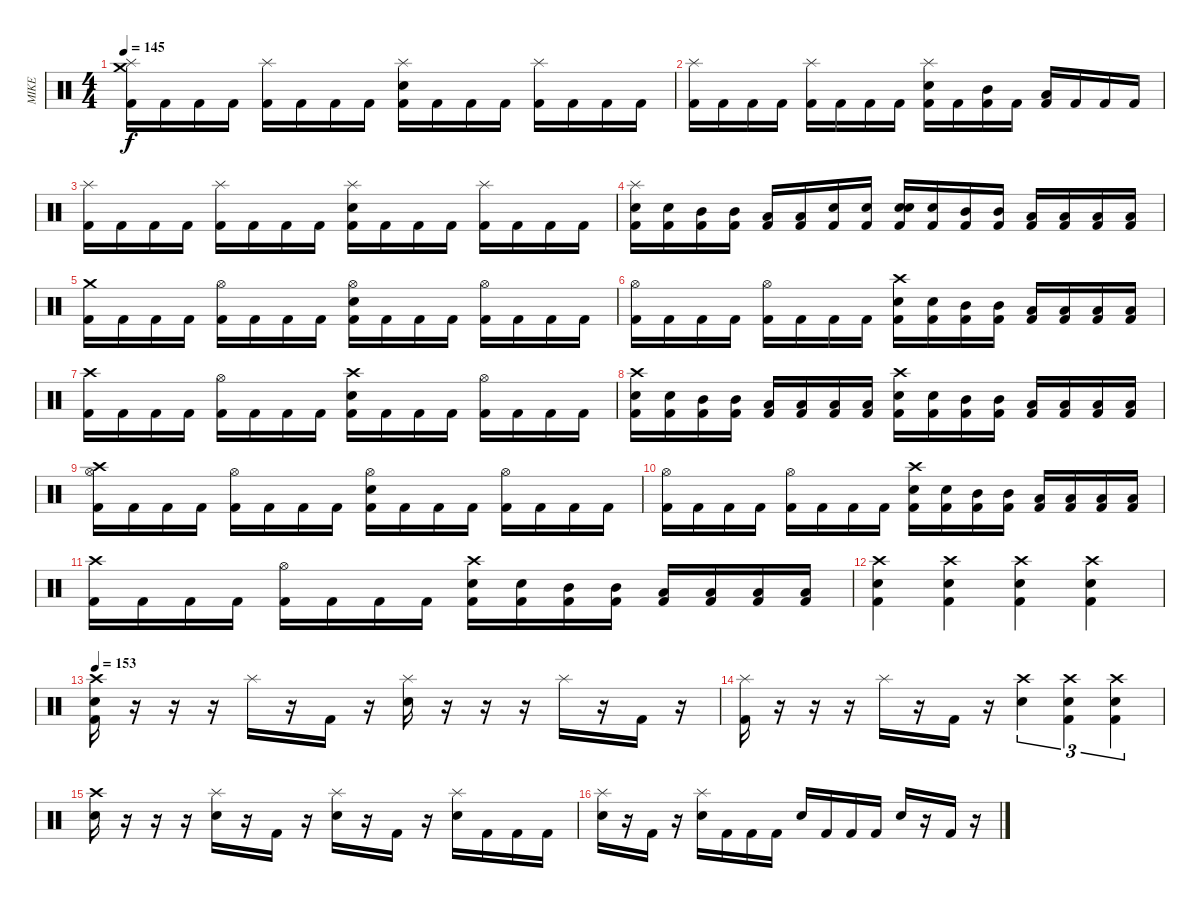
\track ("MIKE" "MIKE") {instrument percussion}
\staff {score}
\articulation defaults
\ts (4 4)
\tempo 145
\clef neutral
\ks c
("Crash medium (hit)" "Splash (hit)" "Kick (hit) 2").16{dy f} "Kick (hit) 2".16 "Kick (hit) 2".16 "Kick (hit) 2".16 ("Splash (hit)" "Kick (hit) 2").16 "Kick (hit) 2".16 "Kick (hit) 2".16 "Kick (hit) 2".16 ("Splash (hit)" "Electric Snare (hit)" "Kick (hit) 2").16 "Kick (hit) 2".16 "Kick (hit) 2".16 "Kick (hit) 2".16 ("Splash (hit)" "Kick (hit) 2").16 "Kick (hit) 2".16 "Kick (hit) 2".16 "Kick (hit) 2".16 |
("Splash (hit)" "Kick (hit) 2").16 "Kick (hit) 2".16 "Kick (hit) 2".16 "Kick (hit) 2".16 ("Splash (hit)" "Kick (hit) 2").16 "Kick (hit) 2".16 "Kick (hit) 2".16 "Kick (hit) 2".16 ("Splash (hit)" "Electric Snare (hit)" "Kick (hit) 2").16 "Kick (hit) 2".16 ("Mid Tom (hit)" "Kick (hit) 2").16 "Kick (hit) 2".16 ("Low Tom (hit)" "Kick (hit) 2").16 "Kick (hit) 2".16 "Kick (hit) 2".16 "Kick (hit) 2".16 |
("Splash (hit)" "Kick (hit) 2").16 "Kick (hit) 2".16 "Kick (hit) 2".16 "Kick (hit) 2".16 ("Splash (hit)" "Kick (hit) 2").16 "Kick (hit) 2".16 "Kick (hit) 2".16 "Kick (hit) 2".16 ("Splash (hit)" "Electric Snare (hit)" "Kick (hit) 2").16 "Kick (hit) 2".16 "Kick (hit) 2".16 "Kick (hit) 2".16 ("Splash (hit)" "Kick (hit) 2").16 "Kick (hit) 2".16 "Kick (hit) 2".16 "Kick (hit) 2".16 |
("Splash (hit)" "Electric Snare (hit)" "Kick (hit) 2").16 ("Electric Snare (hit)" "Kick (hit) 2").16 ("Mid Tom (hit)" "Kick (hit) 2").16 ("Mid Tom (hit)" "Kick (hit) 2").16 ("Low Tom (hit)" "Kick (hit) 2").16 ("Low Tom (hit)" "Kick (hit) 2").16 ("Electric Snare (hit)" "Kick (hit) 2").16 ("Electric Snare (hit)" "Kick (hit) 2").16 ("Electric Snare (hit)" "Electric Snare (hit)" "Kick (hit) 2").16 ("Electric Snare (hit)" "Kick (hit) 2").16 ("Mid Tom (hit)" "Kick (hit) 2").16 ("Mid Tom (hit)" "Kick (hit) 2").16 ("Low Tom (hit)" "Kick (hit) 2").16 ("Low Tom (hit)" "Kick (hit) 2").16 ("Low Floor Tom (hit)" "Kick (hit) 2").16 ("Low Floor Tom (hit)" "Kick (hit) 2").16 |
("Crash medium (hit)" "Kick (hit) 2").16 "Kick (hit) 2".16 "Kick (hit) 2".16 "Kick (hit) 2".16 ("Hi-Hat (open)" "Kick (hit) 2").16 "Kick (hit) 2".16 "Kick (hit) 2".16 "Kick (hit) 2".16 ("Hi-Hat (open)" "Electric Snare (hit)" "Kick (hit) 2").16 "Kick (hit) 2".16 "Kick (hit) 2".16 "Kick (hit) 2".16 ("Hi-Hat (open)" "Kick (hit) 2").16 "Kick (hit) 2".16 "Kick (hit) 2".16 "Kick (hit) 2".16 |
("Hi-Hat (open)" "Kick (hit) 2").16 "Kick (hit) 2".16 "Kick (hit) 2".16 "Kick (hit) 2".16 ("Hi-Hat (open)" "Kick (hit) 2").16 "Kick (hit) 2".16 "Kick (hit) 2".16 "Kick (hit) 2".16 ("Crash high (hit)" "Electric Snare (hit)" "Kick (hit) 2").16 ("Electric Snare (hit)" "Kick (hit) 2").16 ("Mid Tom (hit)" "Kick (hit) 2").16 ("Mid Tom (hit)" "Kick (hit) 2").16 ("Low Tom (hit)" "Kick (hit) 2").16 ("Low Tom (hit)" "Kick (hit) 2").16 ("Low Floor Tom (hit)" "Kick (hit) 2").16 ("Low Floor Tom (hit)" "Kick (hit) 2").16 |
("Crash high (hit)" "Kick (hit) 2").16 "Kick (hit) 2".16 "Kick (hit) 2".16 "Kick (hit) 2".16 ("Hi-Hat (open)" "Kick (hit) 2").16 "Kick (hit) 2".16 "Kick (hit) 2".16 "Kick (hit) 2".16 ("Crash high (hit)" "Electric Snare (hit)" "Kick (hit) 2").16 "Kick (hit) 2".16 "Kick (hit) 2".16 "Kick (hit) 2".16 ("Hi-Hat (open)" "Kick (hit) 2").16 "Kick (hit) 2".16 "Kick (hit) 2".16 "Kick (hit) 2".16 |
("Crash high (hit)" "Electric Snare (hit)" "Kick (hit) 2").16 ("Electric Snare (hit)" "Kick (hit) 2").16 ("Mid Tom (hit)" "Kick (hit) 2").16 ("Mid Tom (hit)" "Kick (hit) 2").16 ("Low Tom (hit)" "Kick (hit) 2").16 ("Low Tom (hit)" "Kick (hit) 2").16 ("Low Floor Tom (hit)" "Kick (hit) 2").16 ("Low Floor Tom (hit)" "Kick (hit) 2").16 ("Crash high (hit)" "Electric Snare (hit)" "Kick (hit) 2").16 ("Electric Snare (hit)" "Kick (hit) 2").16 ("Mid Tom (hit)" "Kick (hit) 2").16 ("Mid Tom (hit)" "Kick (hit) 2").16 ("Low Tom (hit)" "Kick (hit) 2").16 ("Low Tom (hit)" "Kick (hit) 2").16 ("Low Floor Tom (hit)" "Kick (hit) 2").16 ("Low Floor Tom (hit)" "Kick (hit) 2").16 |
("Crash high (hit)" "Hi-Hat (open)" "Kick (hit) 2").16 "Kick (hit) 2".16 "Kick (hit) 2".16 "Kick (hit) 2".16 ("Hi-Hat (open)" "Kick (hit) 2").16 "Kick (hit) 2".16 "Kick (hit) 2".16 "Kick (hit) 2".16 ("Hi-Hat (open)" "Electric Snare (hit)" "Kick (hit) 2").16 "Kick (hit) 2".16 "Kick (hit) 2".16 "Kick (hit) 2".16 ("Hi-Hat (open)" "Kick (hit) 2").16 "Kick (hit) 2".16 "Kick (hit) 2".16 "Kick (hit) 2".16 |
("Hi-Hat (open)" "Kick (hit) 2").16 "Kick (hit) 2".16 "Kick (hit) 2".16 "Kick (hit) 2".16 ("Hi-Hat (open)" "Kick (hit) 2").16 "Kick (hit) 2".16 "Kick (hit) 2".16 "Kick (hit) 2".16 ("Crash high (hit)" "Electric Snare (hit)" "Kick (hit) 2").16 ("Electric Snare (hit)" "Kick (hit) 2").16 ("Mid Tom (hit)" "Kick (hit) 2").16 ("Mid Tom (hit)" "Kick (hit) 2").16 ("Low Tom (hit)" "Kick (hit) 2").16 ("Low Tom (hit)" "Kick (hit) 2").16 ("Low Floor Tom (hit)" "Kick (hit) 2").16 ("Low Floor Tom (hit)" "Kick (hit) 2").16 |
("Crash high (hit)" "Kick (hit) 2").16 "Kick (hit) 2".16 "Kick (hit) 2".16 "Kick (hit) 2".16 ("Hi-Hat (open)" "Kick (hit) 2").16 "Kick (hit) 2".16 "Kick (hit) 2".16 "Kick (hit) 2".16 ("Crash high (hit)" "Electric Snare (hit)" "Kick (hit) 2").16 ("Electric Snare (hit)" "Kick (hit) 2").16 ("Mid Tom (hit)" "Kick (hit) 2").16 ("Mid Tom (hit)" "Kick (hit) 2").16 ("Low Tom (hit)" "Kick (hit) 2").16 ("Low Tom (hit)" "Kick (hit) 2").16 ("Low Floor Tom (hit)" "Kick (hit) 2").16 ("Low Floor Tom (hit)" "Kick (hit) 2").16 |
("Crash high (hit)" "Electric Snare (hit)" "Kick (hit) 2").4 ("Crash high (hit)" "Electric Snare (hit)" "Kick (hit) 2").4 ("Crash high (hit)" "Electric Snare (hit)" "Kick (hit) 2").4 ("Crash high (hit)" "Electric Snare (hit)" "Kick (hit) 2").4 |
\tempo 153
("Crash high (hit)" "Electric Snare (hit)" "Kick (hit) 2").16 r.16 r.16 r.16 "Splash (hit)".16 r.16 "Kick (hit) 2".16 r.16 ("Splash (hit)" "Electric Snare (hit)").16 r.16 r.16 r.16 "Splash (hit)".16 r.16 "Kick (hit) 2".16 r.16 |
("Splash (hit)" "Kick (hit) 2").16 r.16 r.16 r.16 "Splash (hit)".16 r.16 "Kick (hit) 2".16 r.16 ("Crash high (hit)" "Electric Snare (hit)").4{tu (3 2)} ("Crash high (hit)" "Electric Snare (hit)" "Kick (hit) 2").4{tu (3 2)} ("Crash high (hit)" "Electric Snare (hit)" "Kick (hit) 2").4{tu (3 2)} |
("Crash high (hit)" "Electric Snare (hit)").16 r.16 r.16 r.16 ("Splash (hit)" "Electric Snare (hit)").16 r.16 "Kick (hit) 2".16 r.16 ("Splash (hit)" "Electric Snare (hit)").16 r.16 "Kick (hit) 2".16 r.16 ("Splash (hit)" "Electric Snare (hit)").16 "Kick (hit) 2".16 "Kick (hit) 2".16 "Kick (hit) 2".16 |
("Splash (hit)" "Electric Snare (hit)").16 r.16 "Kick (hit) 2".16 r.16 ("Splash (hit)" "Electric Snare (hit)").16 "Kick (hit) 2".16 "Kick (hit) 2".16 "Kick (hit) 2".16 "Electric Snare (hit)".16 "Kick (hit) 2".16 "Kick (hit) 2".16 "Kick (hit) 2".16 "Electric Snare (hit)".16 r.16 "Kick (hit) 2".16 r.16
